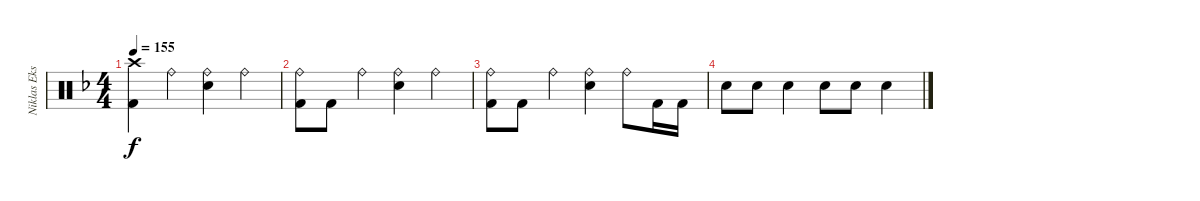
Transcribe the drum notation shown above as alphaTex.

\track ("Niklas Ekstrand" "Niklas Eks") {instrument percussion}
\staff {score}
\articulation defaults
\ts (4 4)
\tempo 155
\clef neutral
\ks dminor
("Crash high (hit)" "Kick (hit) 2").4{dy f} "Ride (bell)".4 ("Ride (bell)" "Snare (hit) 2").4 "Ride (bell)".4 |
("Ride (bell)" "Kick (hit) 2").8 "Kick (hit) 2".8 "Ride (bell)".4 ("Ride (bell)" "Snare (hit) 2").4 "Ride (bell)".4 |
("Ride (bell)" "Kick (hit) 2").8 "Kick (hit) 2".8 "Ride (bell)".4 ("Ride (bell)" "Snare (hit) 2").4 "Ride (bell)".8 "Kick (hit) 2".16 "Kick (hit) 2".16 |
"Snare (hit) 2".8 "Snare (hit) 2".8 "Snare (hit) 2".4 "Snare (hit) 2".8 "Snare (hit) 2".8 "Snare (hit) 2".4
